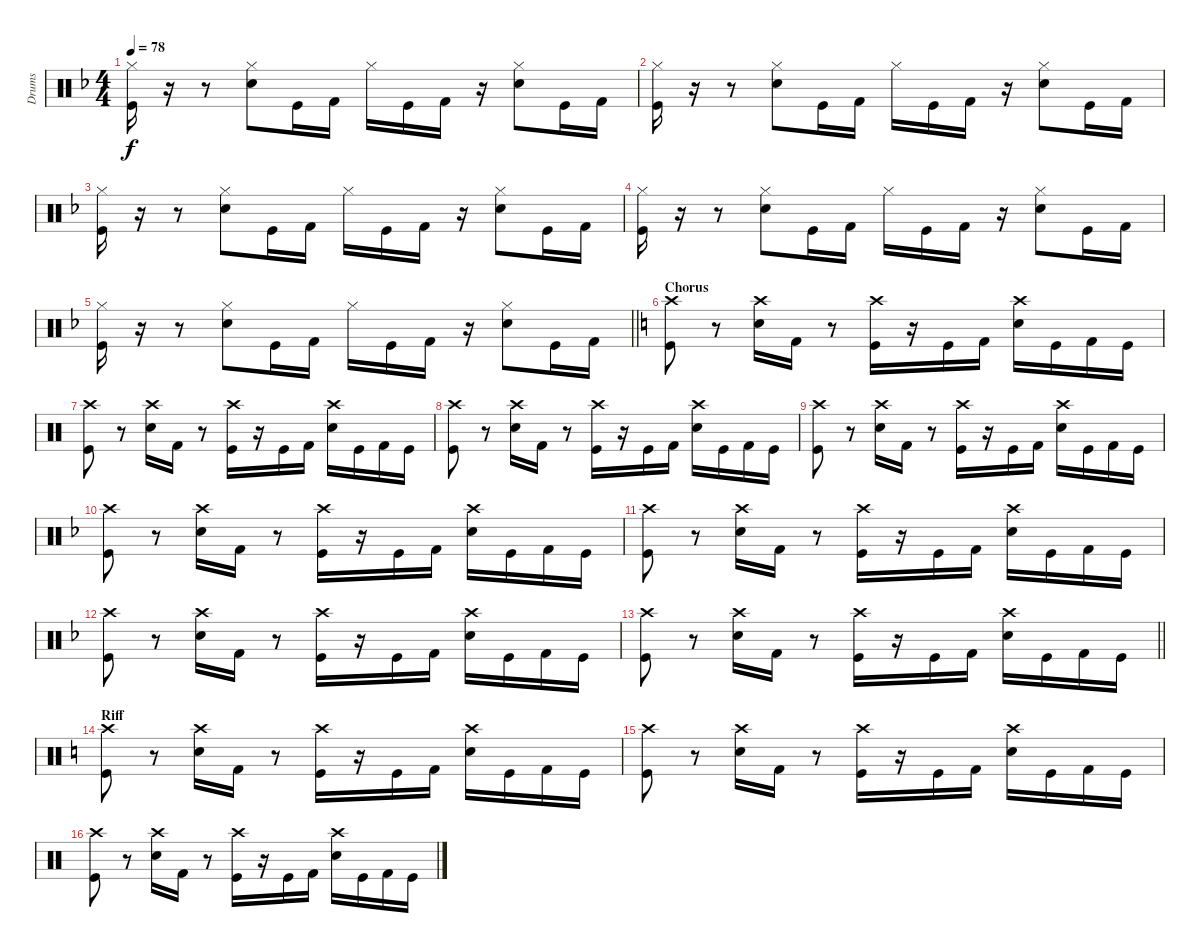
\track ("Drums" "Drums") {instrument percussion}
\staff {score}
\articulation defaults
\ts (4 4)
\tempo 78
\clef neutral
\ks f
("Hi-Hat (closed)" "Kick (hit)").16{dy f} r.16 r.8 ("Hi-Hat (closed)" "Snare (hit) 2").8 "Kick (hit)".16 "Kick (hit) 2".16 "Hi-Hat (closed)".16 "Kick (hit)".16 "Kick (hit) 2".16 r.16 ("Hi-Hat (closed)" "Snare (hit) 2").8 "Kick (hit)".16 "Kick (hit) 2".16 |
("Hi-Hat (closed)" "Kick (hit)").16 r.16 r.8 ("Hi-Hat (closed)" "Snare (hit) 2").8 "Kick (hit)".16 "Kick (hit) 2".16 "Hi-Hat (closed)".16 "Kick (hit)".16 "Kick (hit) 2".16 r.16 ("Hi-Hat (closed)" "Snare (hit) 2").8 "Kick (hit)".16 "Kick (hit) 2".16 |
("Hi-Hat (closed)" "Kick (hit)").16 r.16 r.8 ("Hi-Hat (closed)" "Snare (hit) 2").8 "Kick (hit)".16 "Kick (hit) 2".16 "Hi-Hat (closed)".16 "Kick (hit)".16 "Kick (hit) 2".16 r.16 ("Hi-Hat (closed)" "Snare (hit) 2").8 "Kick (hit)".16 "Kick (hit) 2".16 |
("Hi-Hat (closed)" "Kick (hit)").16 r.16 r.8 ("Hi-Hat (closed)" "Snare (hit) 2").8 "Kick (hit)".16 "Kick (hit) 2".16 "Hi-Hat (closed)".16 "Kick (hit)".16 "Kick (hit) 2".16 r.16 ("Hi-Hat (closed)" "Snare (hit) 2").8 "Kick (hit)".16 "Kick (hit) 2".16 |
\barLineRight lightlight
("Hi-Hat (closed)" "Kick (hit)").16 r.16 r.8 ("Hi-Hat (closed)" "Snare (hit) 2").8 "Kick (hit)".16 "Kick (hit) 2".16 "Hi-Hat (closed)".16 "Kick (hit)".16 "Kick (hit) 2".16 r.16 ("Hi-Hat (closed)" "Snare (hit) 2").8 "Kick (hit)".16 "Kick (hit) 2".16 |
\section ("" "Chorus")
\ks c
("Crash high (hit)" "Kick (hit)").8 r.8 ("Crash high (hit)" "Snare (hit) 2").16 "Kick (hit) 2".16 r.8 ("Crash high (hit)" "Kick (hit)").16 r.16 "Kick (hit)".16 "Kick (hit) 2".16 ("Crash high (hit)" "Snare (hit) 2").16 "Kick (hit)".16 "Kick (hit) 2".16 "Kick (hit)".16 |
("Crash high (hit)" "Kick (hit)").8 r.8 ("Crash high (hit)" "Snare (hit) 2").16 "Kick (hit) 2".16 r.8 ("Crash high (hit)" "Kick (hit)").16 r.16 "Kick (hit)".16 "Kick (hit) 2".16 ("Crash high (hit)" "Snare (hit) 2").16 "Kick (hit)".16 "Kick (hit) 2".16 "Kick (hit)".16 |
("Crash high (hit)" "Kick (hit)").8 r.8 ("Crash high (hit)" "Snare (hit) 2").16 "Kick (hit) 2".16 r.8 ("Crash high (hit)" "Kick (hit)").16 r.16 "Kick (hit)".16 "Kick (hit) 2".16 ("Crash high (hit)" "Snare (hit) 2").16 "Kick (hit)".16 "Kick (hit) 2".16 "Kick (hit)".16 |
("Crash high (hit)" "Kick (hit)").8 r.8 ("Crash high (hit)" "Snare (hit) 2").16 "Kick (hit) 2".16 r.8 ("Crash high (hit)" "Kick (hit)").16 r.16 "Kick (hit)".16 "Kick (hit) 2".16 ("Crash high (hit)" "Snare (hit) 2").16 "Kick (hit)".16 "Kick (hit) 2".16 "Kick (hit)".16 |
\ks f
("Crash high (hit)" "Kick (hit)").8 r.8 ("Crash high (hit)" "Snare (hit) 2").16 "Kick (hit) 2".16 r.8 ("Crash high (hit)" "Kick (hit)").16 r.16 "Kick (hit)".16 "Kick (hit) 2".16 ("Crash high (hit)" "Snare (hit) 2").16 "Kick (hit)".16 "Kick (hit) 2".16 "Kick (hit)".16 |
("Crash high (hit)" "Kick (hit)").8 r.8 ("Crash high (hit)" "Snare (hit) 2").16 "Kick (hit) 2".16 r.8 ("Crash high (hit)" "Kick (hit)").16 r.16 "Kick (hit)".16 "Kick (hit) 2".16 ("Crash high (hit)" "Snare (hit) 2").16 "Kick (hit)".16 "Kick (hit) 2".16 "Kick (hit)".16 |
("Crash high (hit)" "Kick (hit)").8 r.8 ("Crash high (hit)" "Snare (hit) 2").16 "Kick (hit) 2".16 r.8 ("Crash high (hit)" "Kick (hit)").16 r.16 "Kick (hit)".16 "Kick (hit) 2".16 ("Crash high (hit)" "Snare (hit) 2").16 "Kick (hit)".16 "Kick (hit) 2".16 "Kick (hit)".16 |
\barLineRight lightlight
("Crash high (hit)" "Kick (hit)").8 r.8 ("Crash high (hit)" "Snare (hit) 2").16 "Kick (hit) 2".16 r.8 ("Crash high (hit)" "Kick (hit)").16 r.16 "Kick (hit)".16 "Kick (hit) 2".16 ("Crash high (hit)" "Snare (hit) 2").16 "Kick (hit)".16 "Kick (hit) 2".16 "Kick (hit)".16 |
\section ("" "Riff")
\ks c
("Crash high (hit)" "Kick (hit)").8 r.8 ("Crash high (hit)" "Snare (hit) 2").16 "Kick (hit) 2".16 r.8 ("Crash high (hit)" "Kick (hit)").16 r.16 "Kick (hit)".16 "Kick (hit) 2".16 ("Crash high (hit)" "Snare (hit) 2").16 "Kick (hit)".16 "Kick (hit) 2".16 "Kick (hit)".16 |
("Crash high (hit)" "Kick (hit)").8 r.8 ("Crash high (hit)" "Snare (hit) 2").16 "Kick (hit) 2".16 r.8 ("Crash high (hit)" "Kick (hit)").16 r.16 "Kick (hit)".16 "Kick (hit) 2".16 ("Crash high (hit)" "Snare (hit) 2").16 "Kick (hit)".16 "Kick (hit) 2".16 "Kick (hit)".16 |
("Crash high (hit)" "Kick (hit)").8 r.8 ("Crash high (hit)" "Snare (hit) 2").16 "Kick (hit) 2".16 r.8 ("Crash high (hit)" "Kick (hit)").16 r.16 "Kick (hit)".16 "Kick (hit) 2".16 ("Crash high (hit)" "Snare (hit) 2").16 "Kick (hit)".16 "Kick (hit) 2".16 "Kick (hit)".16
